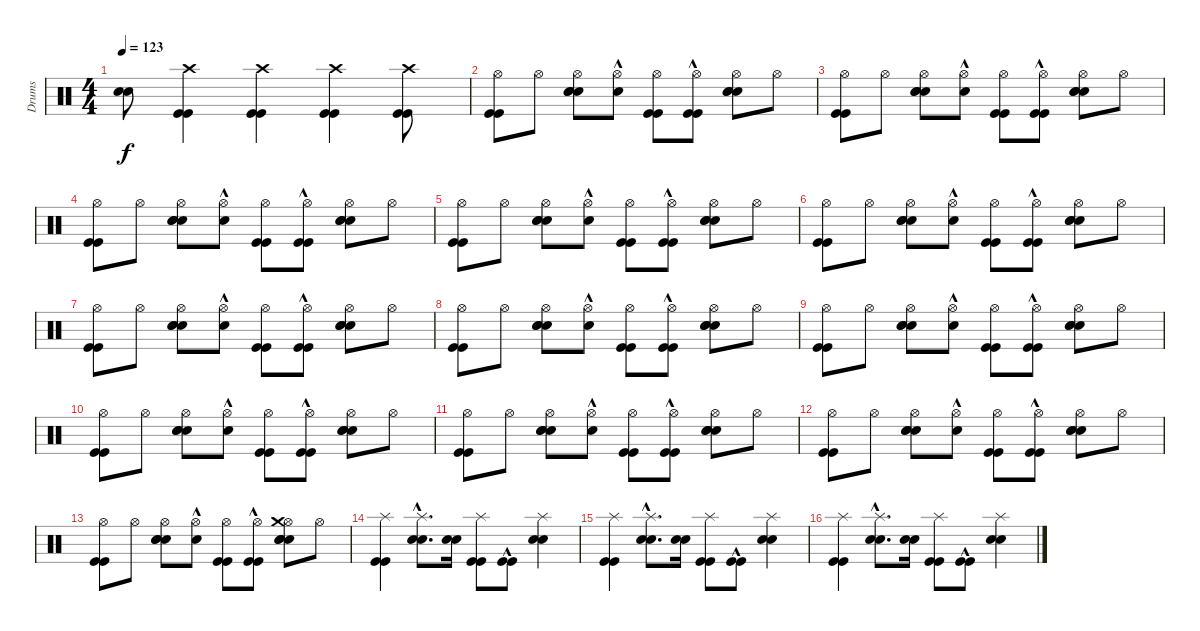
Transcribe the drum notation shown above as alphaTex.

\track ("Drums" "Drums") {instrument percussion}
\staff {score}
\articulation defaults
\ts (4 4)
\tempo 123
\clef neutral
\ks c
("Snare (hit) 2" "Snare (hit) 2").8{dy f} ("Kick (hit)" "Kick (hit)" "Crash high (hit)").4 ("Kick (hit)" "Kick (hit)" "Crash high (hit)").4 ("Kick (hit)" "Kick (hit)" "Crash high (hit)").4 ("Kick (hit)" "Kick (hit)" "Crash high (hit)").8 |
("Kick (hit)" "Kick (hit)" "Hi-Hat (open)").8 "Hi-Hat (open)".8 ("Snare (hit) 2" "Snare (hit) 2" "Hand Clap (hit)" "Hi-Hat (open)").8 ("Hand Clap (hit)"{hac} "Hi-Hat (open)").8 ("Kick (hit)" "Kick (hit)" "Hi-Hat (open)").8 ("Kick (hit)"{hac} "Kick (hit)"{hac} "Hi-Hat (open)").8 ("Snare (hit) 2" "Snare (hit) 2" "Hand Clap (hit)" "Hi-Hat (open)").8 "Hi-Hat (open)".8 |
("Kick (hit)" "Kick (hit)" "Hi-Hat (open)").8 "Hi-Hat (open)".8 ("Snare (hit) 2" "Snare (hit) 2" "Hand Clap (hit)" "Hi-Hat (open)").8 ("Hand Clap (hit)"{hac} "Hi-Hat (open)").8 ("Kick (hit)" "Kick (hit)" "Hi-Hat (open)").8 ("Kick (hit)"{hac} "Kick (hit)"{hac} "Hi-Hat (open)").8 ("Snare (hit) 2" "Snare (hit) 2" "Hand Clap (hit)" "Hi-Hat (open)").8 "Hi-Hat (open)".8 |
("Kick (hit)" "Kick (hit)" "Hi-Hat (open)").8 "Hi-Hat (open)".8 ("Snare (hit) 2" "Snare (hit) 2" "Hand Clap (hit)" "Hi-Hat (open)").8 ("Hand Clap (hit)"{hac} "Hi-Hat (open)").8 ("Kick (hit)" "Kick (hit)" "Hi-Hat (open)").8 ("Kick (hit)"{hac} "Kick (hit)"{hac} "Hi-Hat (open)").8 ("Snare (hit) 2" "Snare (hit) 2" "Hand Clap (hit)" "Hi-Hat (open)").8 "Hi-Hat (open)".8 |
("Kick (hit)" "Kick (hit)" "Hi-Hat (open)").8 "Hi-Hat (open)".8 ("Snare (hit) 2" "Snare (hit) 2" "Hand Clap (hit)" "Hi-Hat (open)").8 ("Hand Clap (hit)"{hac} "Hi-Hat (open)").8 ("Kick (hit)" "Kick (hit)" "Hi-Hat (open)").8 ("Kick (hit)"{hac} "Kick (hit)"{hac} "Hi-Hat (open)").8 ("Snare (hit) 2" "Snare (hit) 2" "Hand Clap (hit)" "Hi-Hat (open)").8 "Hi-Hat (open)".8 |
("Kick (hit)" "Kick (hit)" "Hi-Hat (open)").8 "Hi-Hat (open)".8 ("Snare (hit) 2" "Snare (hit) 2" "Hand Clap (hit)" "Hi-Hat (open)").8 ("Hand Clap (hit)"{hac} "Hi-Hat (open)").8 ("Kick (hit)" "Kick (hit)" "Hi-Hat (open)").8 ("Kick (hit)"{hac} "Kick (hit)"{hac} "Hi-Hat (open)").8 ("Snare (hit) 2" "Snare (hit) 2" "Hand Clap (hit)" "Hi-Hat (open)").8 "Hi-Hat (open)".8 |
("Kick (hit)" "Kick (hit)" "Hi-Hat (open)").8 "Hi-Hat (open)".8 ("Snare (hit) 2" "Snare (hit) 2" "Hand Clap (hit)" "Hi-Hat (open)").8 ("Hand Clap (hit)"{hac} "Hi-Hat (open)").8 ("Kick (hit)" "Kick (hit)" "Hi-Hat (open)").8 ("Kick (hit)"{hac} "Kick (hit)"{hac} "Hi-Hat (open)").8 ("Snare (hit) 2" "Snare (hit) 2" "Hand Clap (hit)" "Hi-Hat (open)").8 "Hi-Hat (open)".8 |
("Kick (hit)" "Kick (hit)" "Hi-Hat (open)").8 "Hi-Hat (open)".8 ("Snare (hit) 2" "Snare (hit) 2" "Hand Clap (hit)" "Hi-Hat (open)").8 ("Hand Clap (hit)"{hac} "Hi-Hat (open)").8 ("Kick (hit)" "Kick (hit)" "Hi-Hat (open)").8 ("Kick (hit)"{hac} "Kick (hit)"{hac} "Hi-Hat (open)").8 ("Snare (hit) 2" "Snare (hit) 2" "Hand Clap (hit)" "Hi-Hat (open)").8 "Hi-Hat (open)".8 |
("Kick (hit)" "Kick (hit)" "Hi-Hat (open)").8 "Hi-Hat (open)".8 ("Snare (hit) 2" "Snare (hit) 2" "Hand Clap (hit)" "Hi-Hat (open)").8 ("Hand Clap (hit)"{hac} "Hi-Hat (open)").8 ("Kick (hit)" "Kick (hit)" "Hi-Hat (open)").8 ("Kick (hit)"{hac} "Kick (hit)"{hac} "Hi-Hat (open)").8 ("Snare (hit) 2" "Snare (hit) 2" "Hand Clap (hit)" "Hi-Hat (open)").8 "Hi-Hat (open)".8 |
("Kick (hit)" "Kick (hit)" "Hi-Hat (open)").8 "Hi-Hat (open)".8 ("Snare (hit) 2" "Snare (hit) 2" "Hand Clap (hit)" "Hi-Hat (open)").8 ("Hand Clap (hit)"{hac} "Hi-Hat (open)").8 ("Kick (hit)" "Kick (hit)" "Hi-Hat (open)").8 ("Kick (hit)"{hac} "Kick (hit)"{hac} "Hi-Hat (open)").8 ("Snare (hit) 2" "Snare (hit) 2" "Hand Clap (hit)" "Hi-Hat (open)").8 "Hi-Hat (open)".8 |
("Kick (hit)" "Kick (hit)" "Hi-Hat (open)").8 "Hi-Hat (open)".8 ("Snare (hit) 2" "Snare (hit) 2" "Hand Clap (hit)" "Hi-Hat (open)").8 ("Hand Clap (hit)"{hac} "Hi-Hat (open)").8 ("Kick (hit)" "Kick (hit)" "Hi-Hat (open)").8 ("Kick (hit)"{hac} "Kick (hit)"{hac} "Hi-Hat (open)").8 ("Snare (hit) 2" "Snare (hit) 2" "Hand Clap (hit)" "Hi-Hat (open)").8 "Hi-Hat (open)".8 |
("Kick (hit)" "Kick (hit)" "Hi-Hat (open)").8 "Hi-Hat (open)".8 ("Snare (hit) 2" "Snare (hit) 2" "Hand Clap (hit)" "Hi-Hat (open)").8 ("Hand Clap (hit)"{hac} "Hi-Hat (open)").8 ("Kick (hit)" "Kick (hit)" "Hi-Hat (open)").8 ("Kick (hit)"{hac} "Kick (hit)"{hac} "Hi-Hat (open)").8 ("Snare (hit) 2" "Snare (hit) 2" "Hand Clap (hit)" "Hi-Hat (open)").8 "Hi-Hat (open)".8 |
("Kick (hit)" "Kick (hit)" "Hi-Hat (open)").8 "Hi-Hat (open)".8 ("Snare (hit) 2" "Snare (hit) 2" "Hand Clap (hit)" "Hi-Hat (open)").8 ("Hand Clap (hit)"{hac} "Hi-Hat (open)").8 ("Kick (hit)" "Kick (hit)" "Hi-Hat (open)").8 ("Kick (hit)"{hac} "Kick (hit)"{hac} "Hi-Hat (open)").8 ("Snare (hit) 2" "Snare (hit) 2" "Hand Clap (hit)" "Hi-Hat (open)" "Crash medium (hit)").8 "Hi-Hat (open)".8 |
("Kick (hit)" "Kick (hit)" "Splash (hit)").4 ("Snare (hit) 2"{hac} "Snare (hit) 2"{hac} "Splash (hit)").8{d} ("Snare (hit) 2" "Snare (hit) 2").16 ("Kick (hit)" "Kick (hit)" "Splash (hit)").8 ("Kick (hit)"{hac} "Kick (hit)"{hac}).8 ("Snare (hit) 2" "Snare (hit) 2" "Splash (hit)").4 |
("Kick (hit)" "Kick (hit)" "Splash (hit)").4 ("Snare (hit) 2"{hac} "Snare (hit) 2"{hac} "Splash (hit)").8{d} ("Snare (hit) 2" "Snare (hit) 2").16 ("Kick (hit)" "Kick (hit)" "Splash (hit)").8 ("Kick (hit)"{hac} "Kick (hit)"{hac}).8 ("Snare (hit) 2" "Snare (hit) 2" "Splash (hit)").4 |
("Kick (hit)" "Kick (hit)" "Splash (hit)").4 ("Snare (hit) 2"{hac} "Snare (hit) 2"{hac} "Splash (hit)").8{d} ("Snare (hit) 2" "Snare (hit) 2").16 ("Kick (hit)" "Kick (hit)" "Splash (hit)").8 ("Kick (hit)"{hac} "Kick (hit)"{hac}).8 ("Snare (hit) 2" "Snare (hit) 2" "Splash (hit)").4
